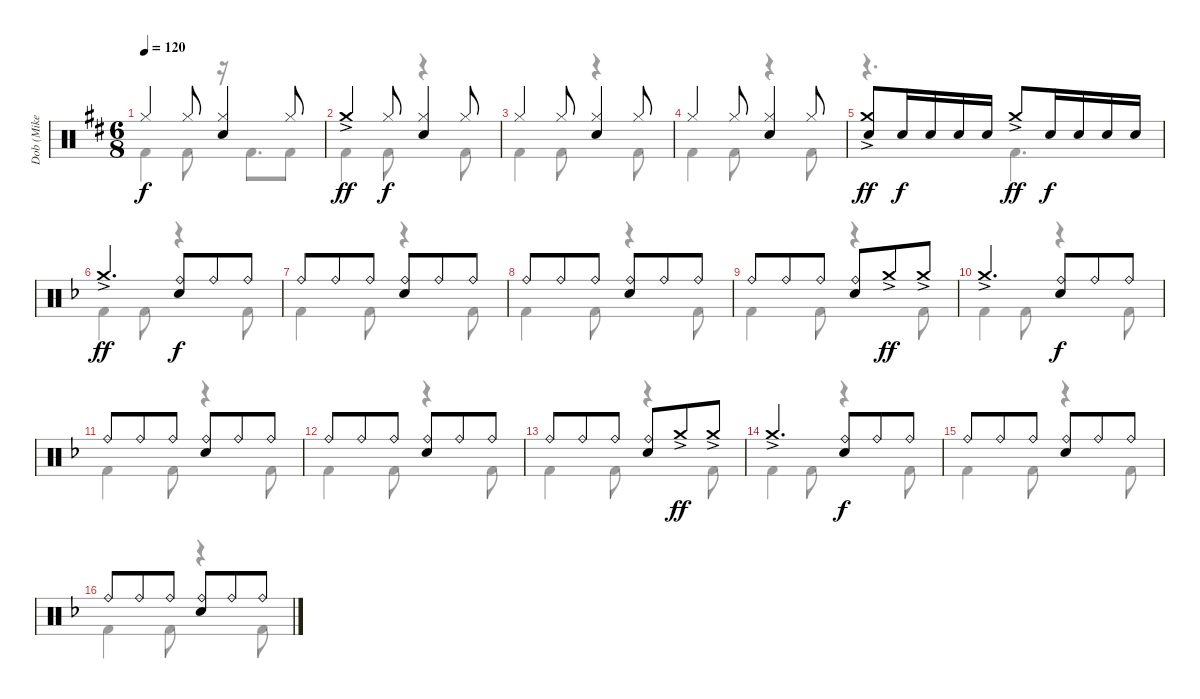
\track ("Dob (Mike Terrana)" "Dob (Mike ") {instrument percussion}
\staff {score}
\articulation defaults
\voice
\ts (6 8)
\tempo 120
\clef neutral
\ks d "Hi-Hat (closed)".4{dy f} "Hi-Hat (closed)".8
("Hi-Hat (closed)" "Electric Snare (hit)").4 "Hi-Hat (closed)".8 |
"Crash medium (hit)"{ac}.4{dy ff} "Hi-Hat (closed)".8{dy f} ("Hi-Hat (closed)" "Electric Snare (hit)").4 "Hi-Hat (closed)".8 |
"Hi-Hat (closed)".4 "Hi-Hat (closed)".8 ("Hi-Hat (closed)" "Electric Snare (hit)").4 "Hi-Hat (closed)".8 |
"Hi-Hat (closed)".4 "Hi-Hat (closed)".8 ("Hi-Hat (closed)" "Electric Snare (hit)").4 "Hi-Hat (closed)".8 |
("Crash medium (hit)"{ac} "Electric Snare (hit)").8{dy ff} "Electric Snare (hit)".16{dy f} "Electric Snare (hit)".16 "Electric Snare (hit)".16 "Electric Snare (hit)".16 "Crash medium (hit)"{ac}.8{dy ff} "Electric Snare (hit)".16{dy f} "Electric Snare (hit)".16 "Electric Snare (hit)".16 "Electric Snare (hit)".16 |
\ks f "Crash medium (hit)"{ac}.4{d dy ff}
("Ride (bell)" "Electric Snare (hit)").8{dy f} "Ride (bell)".8 "Ride (bell)".8 |
"Ride (bell)".8 "Ride (bell)".8 "Ride (bell)".8 ("Ride (bell)" "Electric Snare (hit)").8 "Ride (bell)".8 "Ride (bell)".8 |
"Ride (bell)".8 "Ride (bell)".8 "Ride (bell)".8 ("Ride (bell)" "Electric Snare (hit)").8 "Ride (bell)".8 "Ride (bell)".8 |
"Ride (bell)".8 "Ride (bell)".8 "Ride (bell)".8 ("Ride (bell)" "Electric Snare (hit)").8 "Crash medium (hit)"{ac}.8{dy ff} "Crash medium (hit)"{ac}.8 |
"Crash medium (hit)"{ac}.4{d} ("Ride (bell)" "Electric Snare (hit)").8{dy f} "Ride (bell)".8 "Ride (bell)".8 |
"Ride (bell)".8 "Ride (bell)".8 "Ride (bell)".8 ("Ride (bell)" "Electric Snare (hit)").8 "Ride (bell)".8 "Ride (bell)".8 |
"Ride (bell)".8 "Ride (bell)".8 "Ride (bell)".8 ("Ride (bell)" "Electric Snare (hit)").8 "Ride (bell)".8 "Ride (bell)".8 |
"Ride (bell)".8 "Ride (bell)".8 "Ride (bell)".8 ("Ride (bell)" "Electric Snare (hit)").8 "Crash medium (hit)"{ac}.8{dy ff} "Crash medium (hit)"{ac}.8 |
"Crash medium (hit)"{ac}.4{d} ("Ride (bell)" "Electric Snare (hit)").8{dy f} "Ride (bell)".8 "Ride (bell)".8 |
"Ride (bell)".8 "Ride (bell)".8 "Ride (bell)".8 ("Ride (bell)" "Electric Snare (hit)").8 "Ride (bell)".8 "Ride (bell)".8 |
"Ride (bell)".8 "Ride (bell)".8 "Ride (bell)".8 ("Ride (bell)" "Electric Snare (hit)").8 "Ride (bell)".8 "Ride (bell)".8
\voice
\clef neutral
\ottava regular
\simile none
\ks d "Kick (hit) 2".4{dy f} "Kick (hit) 2".8
r.16 "Kick (hit) 2".8{d} "Kick (hit) 2".8 |
"Kick (hit) 2".4 "Kick (hit) 2".8 r.4 "Kick (hit) 2".8 |
"Kick (hit) 2".4 "Kick (hit) 2".8 r.4 "Kick (hit) 2".8 |
"Kick (hit) 2".4 "Kick (hit) 2".8 r.4 "Kick (hit) 2".8 |
r.4{d} "Kick (hit) 2".4{d} |
\ks f "Kick (hit) 2".4 "Kick (hit) 2".8
r.4 "Kick (hit) 2".8 |
"Kick (hit) 2".4 "Kick (hit) 2".8 r.4 "Kick (hit) 2".8 |
"Kick (hit) 2".4 "Kick (hit) 2".8 r.4 "Kick (hit) 2".8 |
"Kick (hit) 2".4 "Kick (hit) 2".8 r.4 "Kick (hit) 2".8 |
"Kick (hit) 2".4 "Kick (hit) 2".8 r.4 "Kick (hit) 2".8 |
"Kick (hit) 2".4 "Kick (hit) 2".8 r.4 "Kick (hit) 2".8 |
"Kick (hit) 2".4 "Kick (hit) 2".8 r.4 "Kick (hit) 2".8 |
"Kick (hit) 2".4 "Kick (hit) 2".8 r.4 "Kick (hit) 2".8 |
"Kick (hit) 2".4 "Kick (hit) 2".8 r.4 "Kick (hit) 2".8 |
"Kick (hit) 2".4 "Kick (hit) 2".8 r.4 "Kick (hit) 2".8 |
"Kick (hit) 2".4 "Kick (hit) 2".8 r.4 "Kick (hit) 2".8
